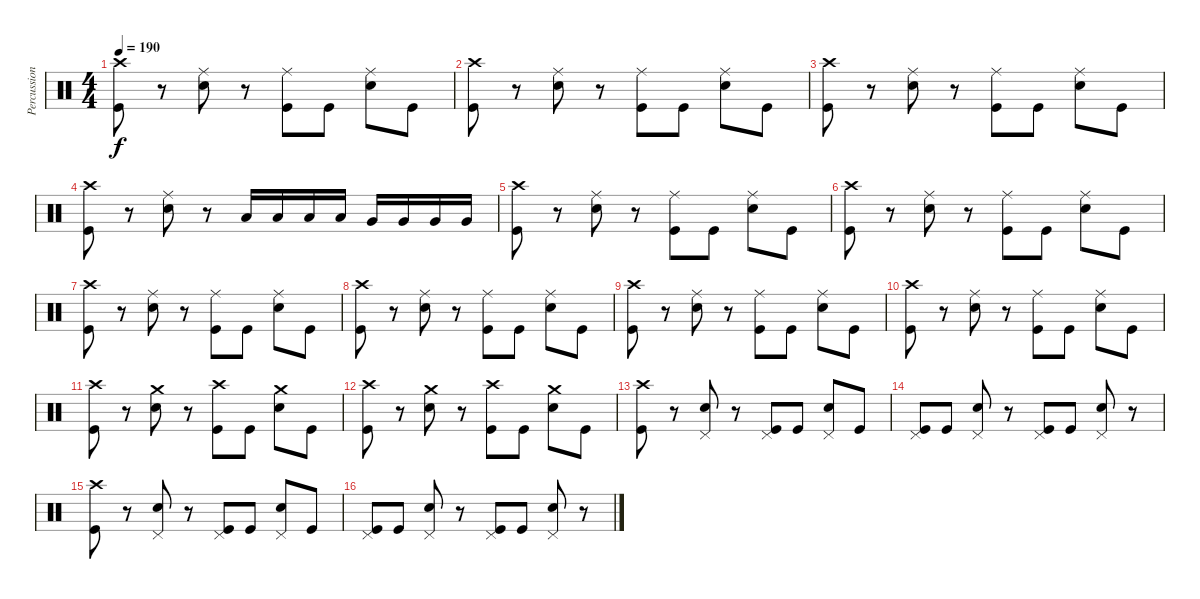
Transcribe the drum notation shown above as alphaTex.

\track ("Percussion" "Percussion") {instrument percussion}
\staff {score}
\articulation defaults
\ts (4 4)
\tempo 190
\clef neutral
\ks c
("Crash high (hit)" "Kick (hit)").8{dy f} r.8 ("Ride (middle)" "Electric Snare (hit)").8 r.8 ("Ride (middle)" "Kick (hit)").8 "Kick (hit)".8 ("Ride (middle)" "Electric Snare (hit)").8 "Kick (hit)".8 |
("Crash high (hit)" "Kick (hit)").8 r.8 ("Ride (middle)" "Electric Snare (hit)").8 r.8 ("Ride (middle)" "Kick (hit)").8 "Kick (hit)".8 ("Ride (middle)" "Electric Snare (hit)").8 "Kick (hit)".8 |
("Crash high (hit)" "Kick (hit)").8 r.8 ("Ride (middle)" "Electric Snare (hit)").8 r.8 ("Ride (middle)" "Kick (hit)").8 "Kick (hit)".8 ("Ride (middle)" "Electric Snare (hit)").8 "Kick (hit)".8 |
("Crash high (hit)" "Kick (hit)").8 r.8 ("Ride (middle)" "Electric Snare (hit)").8 r.8 "Low Tom (hit)".16 "Low Tom (hit)".16 "Low Tom (hit)".16 "Low Tom (hit)".16 "Very Low Tom (hit)".16 "Very Low Tom (hit)".16 "Very Low Tom (hit)".16 "Very Low Tom (hit)".16 |
("Crash high (hit)" "Kick (hit)").8 r.8 ("Ride (middle)" "Electric Snare (hit)").8 r.8 ("Ride (middle)" "Kick (hit)").8 "Kick (hit)".8 ("Ride (middle)" "Electric Snare (hit)").8 "Kick (hit)".8 |
("Crash high (hit)" "Kick (hit)").8 r.8 ("Ride (middle)" "Electric Snare (hit)").8 r.8 ("Ride (middle)" "Kick (hit)").8 "Kick (hit)".8 ("Ride (middle)" "Electric Snare (hit)").8 "Kick (hit)".8 |
("Crash high (hit)" "Kick (hit)").8 r.8 ("Ride (middle)" "Electric Snare (hit)").8 r.8 ("Ride (middle)" "Kick (hit)").8 "Kick (hit)".8 ("Ride (middle)" "Electric Snare (hit)").8 "Kick (hit)".8 |
("Crash high (hit)" "Kick (hit)").8 r.8 ("Ride (middle)" "Electric Snare (hit)").8 r.8 ("Ride (middle)" "Kick (hit)").8 "Kick (hit)".8 ("Ride (middle)" "Electric Snare (hit)").8 "Kick (hit)".8 |
("Crash high (hit)" "Kick (hit)").8 r.8 ("Ride (middle)" "Electric Snare (hit)").8 r.8 ("Ride (middle)" "Kick (hit)").8 "Kick (hit)".8 ("Ride (middle)" "Electric Snare (hit)").8 "Kick (hit)".8 |
("Crash high (hit)" "Kick (hit)").8 r.8 ("Ride (middle)" "Electric Snare (hit)").8 r.8 ("Ride (middle)" "Kick (hit)").8 "Kick (hit)".8 ("Ride (middle)" "Electric Snare (hit)").8 "Kick (hit)".8 |
("Crash high (hit)" "Kick (hit)").8 r.8 ("Crash medium (hit)" "Electric Snare (hit)").8 r.8 ("Crash high (hit)" "Kick (hit)").8 "Kick (hit)".8 ("Crash medium (hit)" "Electric Snare (hit)").8 "Kick (hit)".8 |
("Crash high (hit)" "Kick (hit)").8 r.8 ("Crash medium (hit)" "Electric Snare (hit)").8 r.8 ("Crash high (hit)" "Kick (hit)").8 "Kick (hit)".8 ("Crash medium (hit)" "Electric Snare (hit)").8 "Kick (hit)".8 |
("Crash high (hit)" "Kick (hit)").8 r.8 ("Pedal Hi-Hat (hit)" "Electric Snare (hit)").8 r.8 ("Pedal Hi-Hat (hit)" "Kick (hit)").8 "Kick (hit)".8 ("Pedal Hi-Hat (hit)" "Electric Snare (hit)").8 "Kick (hit)".8 |
("Pedal Hi-Hat (hit)" "Kick (hit)").8 "Kick (hit)".8 ("Pedal Hi-Hat (hit)" "Electric Snare (hit)").8 r.8 ("Pedal Hi-Hat (hit)" "Kick (hit)").8 "Kick (hit)".8 ("Pedal Hi-Hat (hit)" "Electric Snare (hit)").8 r.8 |
("Crash high (hit)" "Kick (hit)").8 r.8 ("Pedal Hi-Hat (hit)" "Electric Snare (hit)").8 r.8 ("Pedal Hi-Hat (hit)" "Kick (hit)").8 "Kick (hit)".8 ("Pedal Hi-Hat (hit)" "Electric Snare (hit)").8 "Kick (hit)".8 |
("Pedal Hi-Hat (hit)" "Kick (hit)").8 "Kick (hit)".8 ("Pedal Hi-Hat (hit)" "Electric Snare (hit)").8 r.8 ("Pedal Hi-Hat (hit)" "Kick (hit)").8 "Kick (hit)".8 ("Pedal Hi-Hat (hit)" "Electric Snare (hit)").8 r.8
